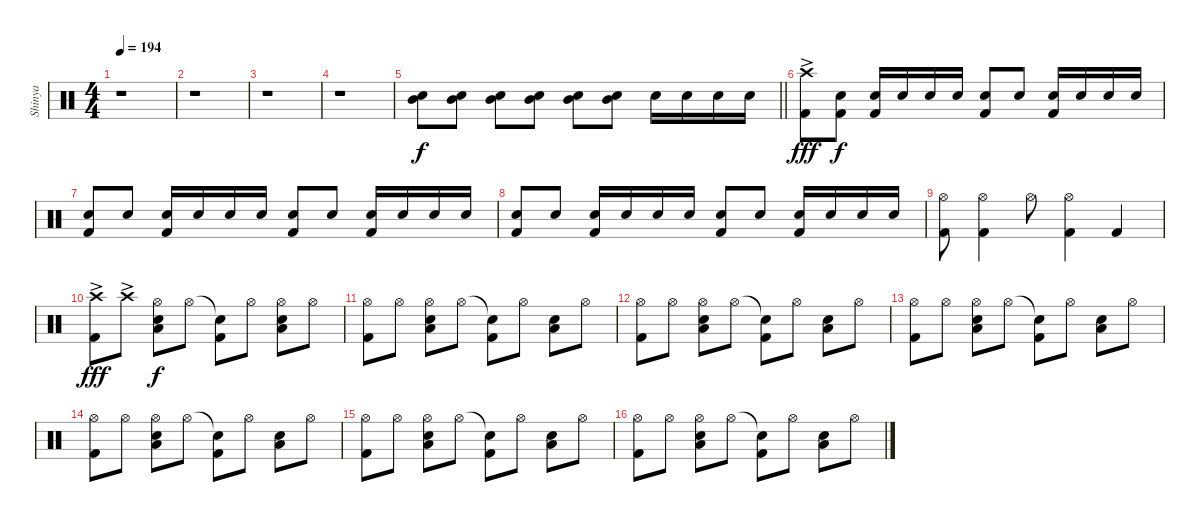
\track ("Shinya" "Shinya") {instrument percussion}
\staff {score}
\articulation defaults
\ts (4 4)
\tempo 194
\clef neutral
\ks c
r.1{dy f} |
r.1 |
r.1 |
r.1 |
\barLineRight lightlight
("Snare (hit) 2" "Mid Tom (hit)").8 ("Snare (hit) 2" "Mid Tom (hit)").8 ("Snare (hit) 2" "Mid Tom (hit)").8 ("Snare (hit) 2" "Mid Tom (hit)").8 ("Snare (hit) 2" "Mid Tom (hit)").8 ("Snare (hit) 2" "Mid Tom (hit)").8 "Snare (hit) 2".16 "Snare (hit) 2".16 "Snare (hit) 2".16 "Snare (hit) 2".16 |
("Crash high (hit)"{ac} "Kick (hit) 2").8{dy fff} ("Snare (hit) 2" "Kick (hit) 2").8{dy f} ("Snare (hit) 2" "Kick (hit) 2").16 "Snare (hit) 2".16 "Snare (hit) 2".16 "Snare (hit) 2".16 ("Snare (hit) 2" "Kick (hit) 2").8 "Snare (hit) 2".8 ("Snare (hit) 2" "Kick (hit) 2").16 "Snare (hit) 2".16 "Snare (hit) 2".16 "Snare (hit) 2".16 |
("Snare (hit) 2" "Kick (hit) 2").8 "Snare (hit) 2".8 ("Snare (hit) 2" "Kick (hit) 2").16 "Snare (hit) 2".16 "Snare (hit) 2".16 "Snare (hit) 2".16 ("Snare (hit) 2" "Kick (hit) 2").8 "Snare (hit) 2".8 ("Kick (hit) 2" "Snare (hit) 2").16 "Snare (hit) 2".16 "Snare (hit) 2".16 "Snare (hit) 2".16 |
("Snare (hit) 2" "Kick (hit) 2").8 "Snare (hit) 2".8 ("Snare (hit) 2" "Kick (hit) 2").16 "Snare (hit) 2".16 "Snare (hit) 2".16 "Snare (hit) 2".16 ("Snare (hit) 2" "Kick (hit) 2").8 "Snare (hit) 2".8 ("Kick (hit) 2" "Snare (hit) 2").16 "Snare (hit) 2".16 "Snare (hit) 2".16 "Snare (hit) 2".16 |
("Hi-Hat (open)" "Kick (hit) 2").8 ("Hi-Hat (open)" "Kick (hit) 2").4 "Hi-Hat (open)".8 ("Hi-Hat (open)" "Kick (hit) 2").4 "Kick (hit) 2".4 |
("Crash high (hit)"{ac} "Kick (hit) 2").8{dy fff} "Crash high (hit)"{ac}.8 ("Hi-Hat (open)" "Snare (hit) 2" "Low Floor Tom (hit)").8{dy f} "Hi-Hat (open)".8 ("Snare (hit)"{t} "Kick (hit) 2").8 "Hi-Hat (open)".8 ("Hi-Hat (open)" "Snare (hit) 2" "Low Floor Tom (hit)").8 "Hi-Hat (open)".8 |
("Hi-Hat (open)" "Kick (hit) 2").8 "Hi-Hat (open)".8 ("Hi-Hat (open)" "Snare (hit) 2" "Low Floor Tom (hit)").8 "Hi-Hat (open)".8 ("Snare (hit)"{t} "Kick (hit) 2").8 "Hi-Hat (open)".8 ("Snare (hit) 2" "Low Floor Tom (hit)").8 "Hi-Hat (open)".8 |
("Hi-Hat (open)" "Kick (hit) 2").8 "Hi-Hat (open)".8 ("Hi-Hat (open)" "Snare (hit) 2" "Low Floor Tom (hit)").8 "Hi-Hat (open)".8 ("Snare (hit)"{t} "Kick (hit) 2").8 "Hi-Hat (open)".8 ("Snare (hit) 2" "Low Floor Tom (hit)").8 "Hi-Hat (open)".8 |
("Hi-Hat (open)" "Kick (hit) 2").8 "Hi-Hat (open)".8 ("Hi-Hat (open)" "Snare (hit) 2" "Low Floor Tom (hit)").8 "Hi-Hat (open)".8 ("Snare (hit)"{t} "Kick (hit) 2").8 "Hi-Hat (open)".8 ("Snare (hit) 2" "Low Floor Tom (hit)").8 "Hi-Hat (open)".8 |
("Hi-Hat (open)" "Kick (hit) 2").8 "Hi-Hat (open)".8 ("Hi-Hat (open)" "Snare (hit) 2" "Low Floor Tom (hit)").8 "Hi-Hat (open)".8 ("Snare (hit)"{t} "Kick (hit) 2").8 "Hi-Hat (open)".8 ("Snare (hit) 2" "Low Floor Tom (hit)").8 "Hi-Hat (open)".8 |
("Hi-Hat (open)" "Kick (hit) 2").8 "Hi-Hat (open)".8 ("Hi-Hat (open)" "Snare (hit) 2" "Low Floor Tom (hit)").8 "Hi-Hat (open)".8 ("Snare (hit)"{t} "Kick (hit) 2").8 "Hi-Hat (open)".8 ("Snare (hit) 2" "Low Floor Tom (hit)").8 "Hi-Hat (open)".8 |
("Hi-Hat (open)" "Kick (hit) 2").8 "Hi-Hat (open)".8 ("Hi-Hat (open)" "Snare (hit) 2" "Low Floor Tom (hit)").8 "Hi-Hat (open)".8 ("Snare (hit)"{t} "Kick (hit) 2").8 "Hi-Hat (open)".8 ("Snare (hit) 2" "Low Floor Tom (hit)").8 "Hi-Hat (open)".8
